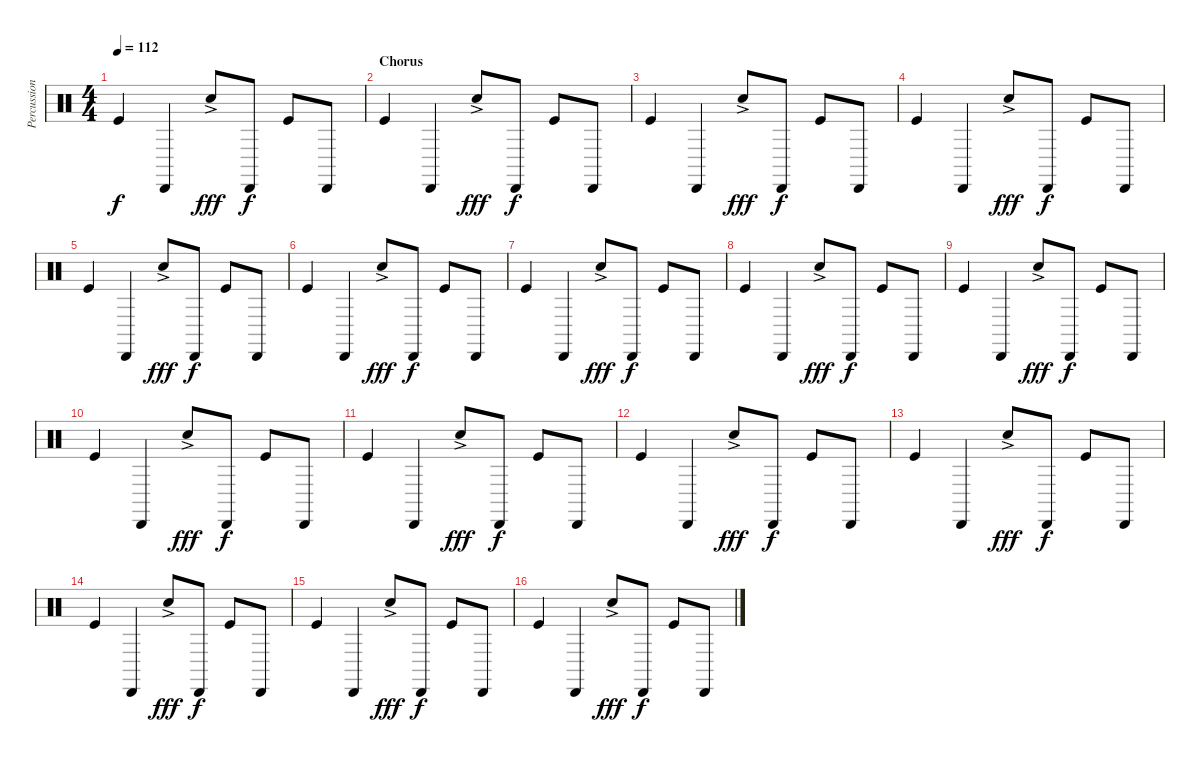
\track ("Percussion" "Percussion") {instrument percussion}
\staff {score}
\articulation defaults
\ts (4 4)
\tempo 112
\clef neutral
\ks c "Kick (hit)".4{dy f} "Cabasa (hit)".4 "Snare (hit) 2"{ac}.8{dy fff} "Cabasa (hit)".8{dy f} "Kick (hit)".8 "Cabasa (hit)".8
|
\section ("" "Chorus")
"Kick (hit)".4 "Cabasa (hit)".4 "Snare (hit) 2"{ac}.8{dy fff} "Cabasa (hit)".8{dy f} "Kick (hit)".8 "Cabasa (hit)".8 |
"Kick (hit)".4 "Cabasa (hit)".4 "Snare (hit) 2"{ac}.8{dy fff} "Cabasa (hit)".8{dy f} "Kick (hit)".8 "Cabasa (hit)".8 |
"Kick (hit)".4 "Cabasa (hit)".4 "Snare (hit) 2"{ac}.8{dy fff} "Cabasa (hit)".8{dy f} "Kick (hit)".8 "Cabasa (hit)".8 |
"Kick (hit)".4 "Cabasa (hit)".4 "Snare (hit) 2"{ac}.8{dy fff} "Cabasa (hit)".8{dy f} "Kick (hit)".8 "Cabasa (hit)".8 |
"Kick (hit)".4 "Cabasa (hit)".4 "Snare (hit) 2"{ac}.8{dy fff} "Cabasa (hit)".8{dy f} "Kick (hit)".8 "Cabasa (hit)".8 |
"Kick (hit)".4 "Cabasa (hit)".4 "Snare (hit) 2"{ac}.8{dy fff} "Cabasa (hit)".8{dy f} "Kick (hit)".8 "Cabasa (hit)".8 |
"Kick (hit)".4 "Cabasa (hit)".4 "Snare (hit) 2"{ac}.8{dy fff} "Cabasa (hit)".8{dy f} "Kick (hit)".8 "Cabasa (hit)".8 |
"Kick (hit)".4 "Cabasa (hit)".4 "Snare (hit) 2"{ac}.8{dy fff} "Cabasa (hit)".8{dy f} "Kick (hit)".8 "Cabasa (hit)".8 |
"Kick (hit)".4 "Cabasa (hit)".4 "Snare (hit) 2"{ac}.8{dy fff} "Cabasa (hit)".8{dy f} "Kick (hit)".8 "Cabasa (hit)".8 |
"Kick (hit)".4 "Cabasa (hit)".4 "Snare (hit) 2"{ac}.8{dy fff} "Cabasa (hit)".8{dy f} "Kick (hit)".8 "Cabasa (hit)".8 |
"Kick (hit)".4 "Cabasa (hit)".4 "Snare (hit) 2"{ac}.8{dy fff} "Cabasa (hit)".8{dy f} "Kick (hit)".8 "Cabasa (hit)".8 |
"Kick (hit)".4 "Cabasa (hit)".4 "Snare (hit) 2"{ac}.8{dy fff} "Cabasa (hit)".8{dy f} "Kick (hit)".8 "Cabasa (hit)".8 |
"Kick (hit)".4 "Cabasa (hit)".4 "Snare (hit) 2"{ac}.8{dy fff} "Cabasa (hit)".8{dy f} "Kick (hit)".8 "Cabasa (hit)".8 |
"Kick (hit)".4 "Cabasa (hit)".4 "Snare (hit) 2"{ac}.8{dy fff} "Cabasa (hit)".8{dy f} "Kick (hit)".8 "Cabasa (hit)".8 |
"Kick (hit)".4 "Cabasa (hit)".4 "Snare (hit) 2"{ac}.8{dy fff} "Cabasa (hit)".8{dy f} "Kick (hit)".8 "Cabasa (hit)".8
